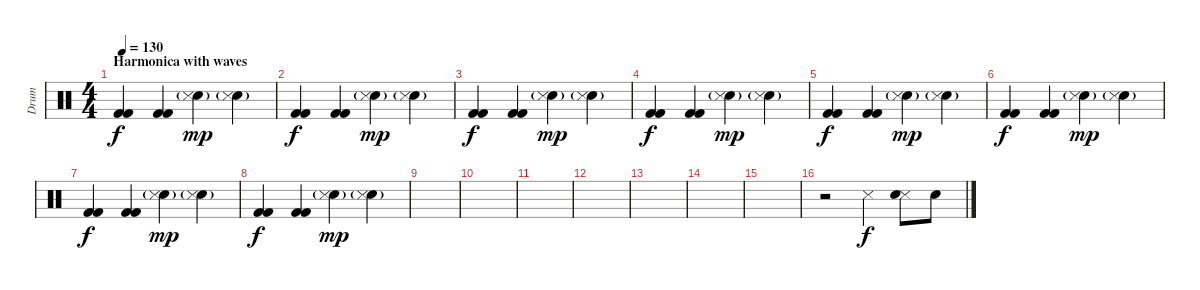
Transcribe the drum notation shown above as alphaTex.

\track ("Drum" "Drum") {instrument percussion}
\staff {score}
\articulation defaults
\ts (4 4)
\section ("" "Harmonica with waves")
\tempo 130
\clef neutral
\ks c
("Kick (hit) 2" "Kick (hit) 2").4{dy f} ("Kick (hit) 2" "Kick (hit) 2").4 ("Snare (hit) 2" "Snare (side stick) 3"{g}).4{dy mp} ("Snare (hit) 2"{g} "Snare (side stick) 3").4 |
("Kick (hit) 2" "Kick (hit) 2").4{dy f} ("Kick (hit) 2" "Kick (hit) 2").4 ("Snare (hit) 2" "Snare (side stick) 3"{g}).4{dy mp} ("Snare (hit) 2"{g} "Snare (side stick) 3").4 |
("Kick (hit) 2" "Kick (hit) 2").4{dy f} ("Kick (hit) 2" "Kick (hit) 2").4 ("Snare (hit) 2" "Snare (side stick) 3"{g}).4{dy mp} ("Snare (hit) 2"{g} "Snare (side stick) 3").4 |
("Kick (hit) 2" "Kick (hit) 2").4{dy f} ("Kick (hit) 2" "Kick (hit) 2").4 ("Snare (hit) 2" "Snare (side stick) 3"{g}).4{dy mp} ("Snare (hit) 2"{g} "Snare (side stick) 3").4 |
("Kick (hit) 2" "Kick (hit) 2").4{dy f} ("Kick (hit) 2" "Kick (hit) 2").4 ("Snare (hit) 2" "Snare (side stick) 3"{g}).4{dy mp} ("Snare (hit) 2"{g} "Snare (side stick) 3").4 |
("Kick (hit) 2" "Kick (hit) 2").4{dy f} ("Kick (hit) 2" "Kick (hit) 2").4 ("Snare (hit) 2" "Snare (side stick) 3"{g}).4{dy mp} ("Snare (hit) 2"{g} "Snare (side stick) 3").4 |
("Kick (hit) 2" "Kick (hit) 2").4{dy f} ("Kick (hit) 2" "Kick (hit) 2").4 ("Snare (hit) 2" "Snare (side stick) 3"{g}).4{dy mp} ("Snare (hit) 2"{g} "Snare (side stick) 3").4 |
("Kick (hit) 2" "Kick (hit) 2").4{dy f} ("Kick (hit) 2" "Kick (hit) 2").4 ("Snare (hit) 2" "Snare (side stick) 3"{g}).4{dy mp} ("Snare (hit) 2"{g} "Snare (side stick) 3").4 |
|
|
|
|
|
|
|
r.2 "Snare (side stick) 3".4{dy f} ("Snare (side stick) 3" "Snare (hit) 2").8 "Snare (hit) 2".8
